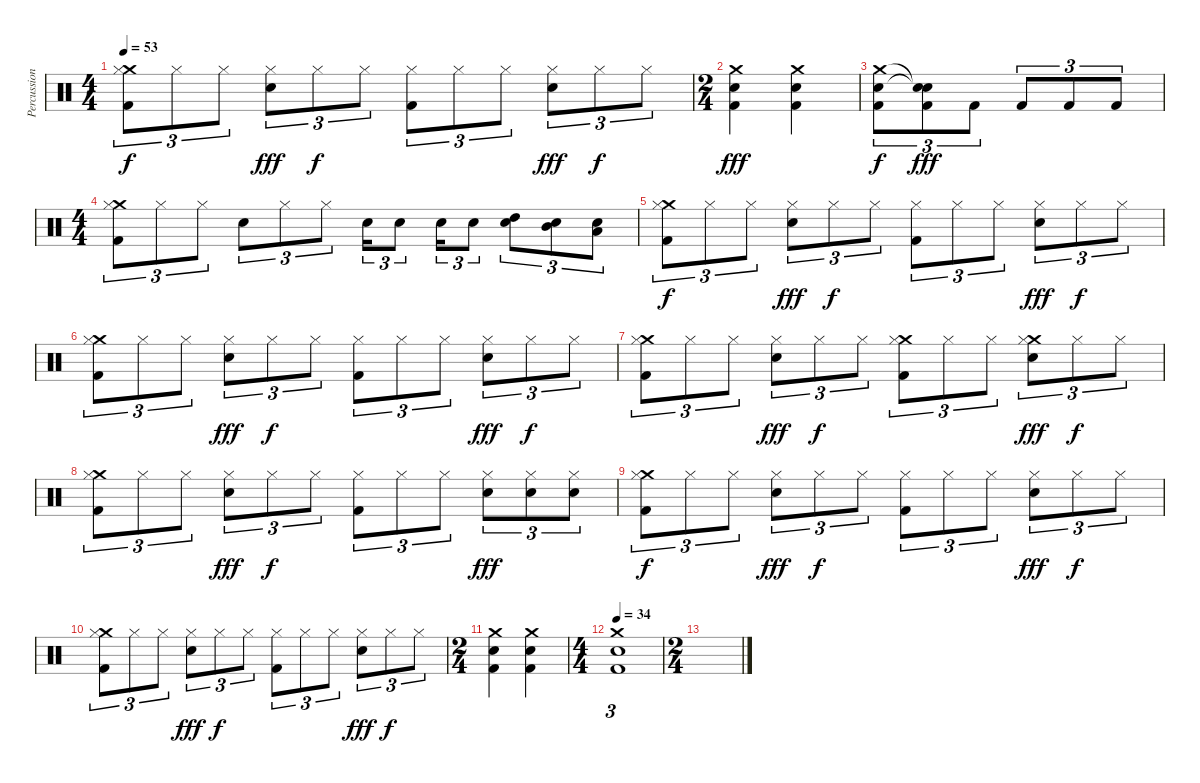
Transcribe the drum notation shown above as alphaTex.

\track ("Percussion" "Percussion") {instrument percussion}
\staff {score}
\articulation defaults
\ts (4 4)
\tempo 53
\clef neutral
\ks c
("Crash medium (hit)" "Hi-Hat (closed)" "Kick (hit) 2").8{tu (3 2) dy f} "Hi-Hat (closed)".8{tu (3 2)} "Hi-Hat (closed)".8{tu (3 2)} ("Snare (hit) 2" "Hi-Hat (closed)").8{tu (3 2) dy fff} "Hi-Hat (closed)".8{tu (3 2) dy f} "Hi-Hat (closed)".8{tu (3 2)} ("Hi-Hat (closed)" "Kick (hit) 2").8{tu (3 2)} "Hi-Hat (closed)".8{tu (3 2)} "Hi-Hat (closed)".8{tu (3 2)} ("Snare (hit) 2" "Hi-Hat (closed)").8{tu (3 2) dy fff} "Hi-Hat (closed)".8{tu (3 2) dy f} "Hi-Hat (closed)".8{tu (3 2)} |
\ts (2 4)
("Crash medium (hit)" "Kick (hit) 2" "Snare (hit) 2").4{dy fff} ("Crash medium (hit)" "Kick (hit) 2" "Snare (hit) 2").4 |
("Crash medium (hit)" "Kick (hit) 2" "Snare (hit) 2").8{tu (3 2) dy f volume 16} ("Snare (hit)"{t} "Kick (hit) 2" "Snare (hit)"{t}).8{tu (3 2) dy fff} "Kick (hit) 2".8{tu (3 2)} "Kick (hit) 2".8{tu (3 2)} "Kick (hit) 2".8{tu (3 2)} "Kick (hit) 2".8{tu (3 2)} |
\ts (4 4)
("Crash medium (hit)" "Kick (hit) 2" "Hi-Hat (closed)").8{tu (3 2)} "Hi-Hat (closed)".8{tu (3 2)} "Hi-Hat (closed)".8{tu (3 2)} "Snare (hit) 2".8{tu (3 2)} "Hi-Hat (closed)".8{tu (3 2)} "Hi-Hat (closed)".8{tu (3 2)} "Snare (hit) 2".16{tu (3 2)} "Snare (hit) 2".8{tu (3 2)} "Snare (hit) 2".16{tu (3 2)} "Snare (hit) 2".8{tu (3 2)} ("High Tom (hit)" "Snare (hit) 2").8{tu (3 2)} ("Mid Tom (hit)" "Snare (hit) 2").8{tu (3 2)} ("Low Tom (hit)" "Snare (hit) 2").8{tu (3 2)} |
("Crash medium (hit)" "Hi-Hat (closed)" "Kick (hit) 2").8{tu (3 2) dy f} "Hi-Hat (closed)".8{tu (3 2)} "Hi-Hat (closed)".8{tu (3 2)} ("Snare (hit) 2" "Hi-Hat (closed)").8{tu (3 2) dy fff} "Hi-Hat (closed)".8{tu (3 2) dy f} "Hi-Hat (closed)".8{tu (3 2)} ("Hi-Hat (closed)" "Kick (hit) 2").8{tu (3 2)} "Hi-Hat (closed)".8{tu (3 2)} "Hi-Hat (closed)".8{tu (3 2)} ("Snare (hit) 2" "Hi-Hat (closed)").8{tu (3 2) dy fff} "Hi-Hat (closed)".8{tu (3 2) dy f} "Hi-Hat (closed)".8{tu (3 2)} |
("Crash medium (hit)" "Hi-Hat (closed)" "Kick (hit) 2").8{tu (3 2)} "Hi-Hat (closed)".8{tu (3 2)} "Hi-Hat (closed)".8{tu (3 2)} ("Snare (hit) 2" "Hi-Hat (closed)").8{tu (3 2) dy fff} "Hi-Hat (closed)".8{tu (3 2) dy f} "Hi-Hat (closed)".8{tu (3 2)} ("Hi-Hat (closed)" "Kick (hit) 2").8{tu (3 2)} "Hi-Hat (closed)".8{tu (3 2)} "Hi-Hat (closed)".8{tu (3 2)} ("Snare (hit) 2" "Hi-Hat (closed)").8{tu (3 2) dy fff} "Hi-Hat (closed)".8{tu (3 2) dy f} "Hi-Hat (closed)".8{tu (3 2)} |
("Crash medium (hit)" "Hi-Hat (closed)" "Kick (hit) 2").8{tu (3 2)} "Hi-Hat (closed)".8{tu (3 2)} "Hi-Hat (closed)".8{tu (3 2)} ("Snare (hit) 2" "Hi-Hat (closed)").8{tu (3 2) dy fff} "Hi-Hat (closed)".8{tu (3 2) dy f} "Hi-Hat (closed)".8{tu (3 2)} ("Crash medium (hit)" "Hi-Hat (closed)" "Kick (hit) 2").8{tu (3 2)} "Hi-Hat (closed)".8{tu (3 2)} "Hi-Hat (closed)".8{tu (3 2)} ("Crash medium (hit)" "Snare (hit) 2" "Hi-Hat (closed)").8{tu (3 2) dy fff} "Hi-Hat (closed)".8{tu (3 2) dy f} "Hi-Hat (closed)".8{tu (3 2)} |
("Crash medium (hit)" "Hi-Hat (closed)" "Kick (hit) 2").8{tu (3 2)} "Hi-Hat (closed)".8{tu (3 2)} "Hi-Hat (closed)".8{tu (3 2)} ("Snare (hit) 2" "Hi-Hat (closed)").8{tu (3 2) dy fff} "Hi-Hat (closed)".8{tu (3 2) dy f} "Hi-Hat (closed)".8{tu (3 2)} ("Hi-Hat (closed)" "Kick (hit) 2").8{tu (3 2)} "Hi-Hat (closed)".8{tu (3 2)} "Hi-Hat (closed)".8{tu (3 2)} ("Snare (hit) 2" "Hi-Hat (closed)").8{tu (3 2) dy fff} ("Snare (hit) 2" "Hi-Hat (closed)").8{tu (3 2)} ("Snare (hit) 2" "Hi-Hat (closed)").8{tu (3 2)} |
("Crash medium (hit)" "Hi-Hat (closed)" "Kick (hit) 2").8{tu (3 2) dy f} "Hi-Hat (closed)".8{tu (3 2)} "Hi-Hat (closed)".8{tu (3 2)} ("Snare (hit) 2" "Hi-Hat (closed)").8{tu (3 2) dy fff} "Hi-Hat (closed)".8{tu (3 2) dy f} "Hi-Hat (closed)".8{tu (3 2)} ("Hi-Hat (closed)" "Kick (hit) 2").8{tu (3 2)} "Hi-Hat (closed)".8{tu (3 2)} "Hi-Hat (closed)".8{tu (3 2)} ("Snare (hit) 2" "Hi-Hat (closed)").8{tu (3 2) dy fff} "Hi-Hat (closed)".8{tu (3 2) dy f} "Hi-Hat (closed)".8{tu (3 2)} |
("Crash medium (hit)" "Hi-Hat (closed)" "Kick (hit) 2").8{tu (3 2)} "Hi-Hat (closed)".8{tu (3 2)} "Hi-Hat (closed)".8{tu (3 2)} ("Snare (hit) 2" "Hi-Hat (closed)").8{tu (3 2) dy fff} "Hi-Hat (closed)".8{tu (3 2) dy f} "Hi-Hat (closed)".8{tu (3 2)} ("Hi-Hat (closed)" "Kick (hit) 2").8{tu (3 2)} "Hi-Hat (closed)".8{tu (3 2)} "Hi-Hat (closed)".8{tu (3 2)} ("Snare (hit) 2" "Hi-Hat (closed)").8{tu (3 2) dy fff} "Hi-Hat (closed)".8{tu (3 2) dy f} "Hi-Hat (closed)".8{tu (3 2)} |
\ts (2 4)
("Crash medium (hit)" "Kick (hit) 2" "Snare (hit) 2").4 ("Crash medium (hit)" "Kick (hit) 2" "Snare (hit) 2").4 |
\ts (4 4)
\tempo 34
("Crash medium (hit)" "Kick (hit) 2" "Snare (hit) 2").1{tu (3 2)} |
\ts (2 4)
